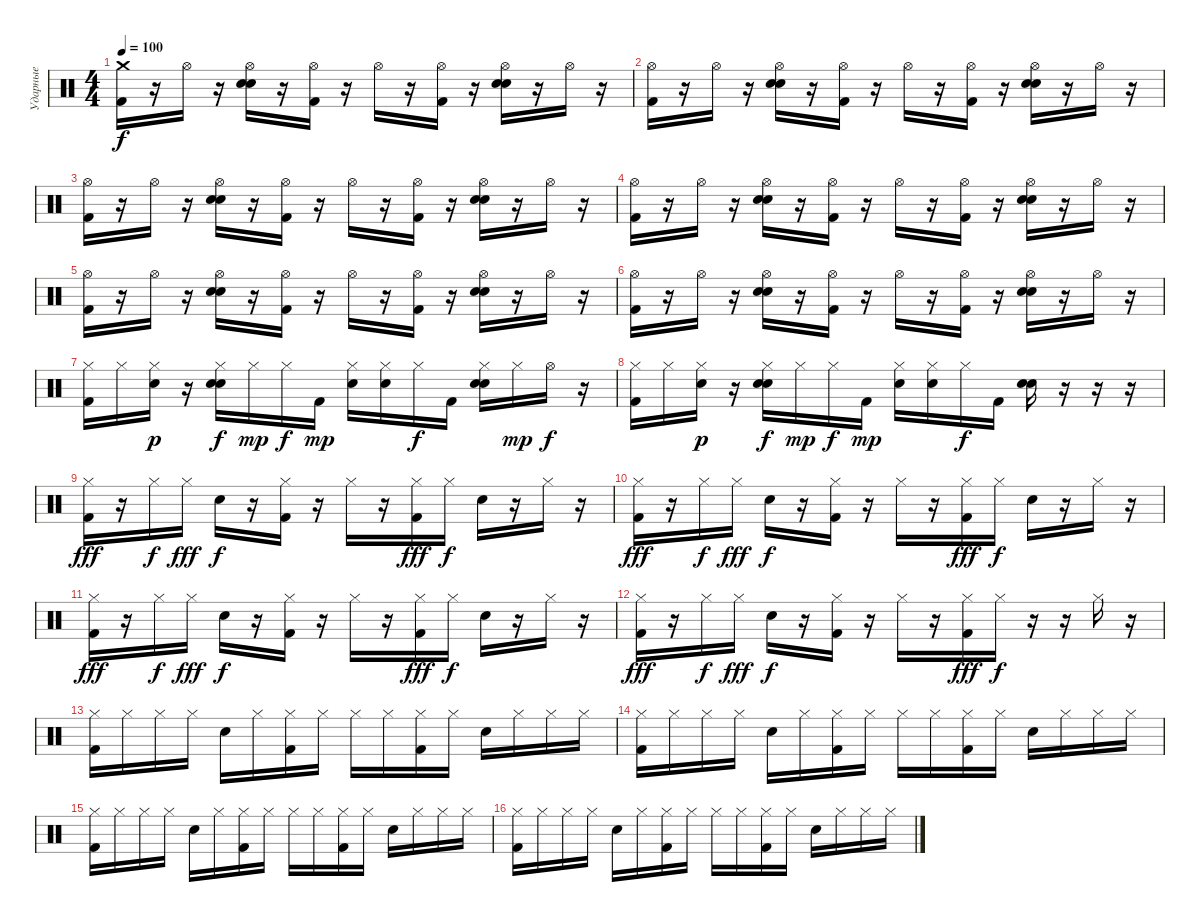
\track ("Ударные" "Ударные") {instrument percussion}
\staff {score}
\articulation defaults
\ts (4 4)
\tempo 100
\clef neutral
\ks c
("Crash medium (hit)" "Kick (hit) 2").16{dy f} r.16 "Hi-Hat (open)".16 r.16 ("Hi-Hat (open)" "Electric Snare (hit)" "Electric Snare (hit)").16 r.16 ("Hi-Hat (open)" "Kick (hit) 2").16 r.16 "Hi-Hat (open)".16 r.16 ("Hi-Hat (open)" "Kick (hit) 2").16 r.16 ("Hi-Hat (open)" "Electric Snare (hit)" "Electric Snare (hit)").16 r.16 "Hi-Hat (open)".16 r.16 |
("Hi-Hat (open)" "Kick (hit) 2").16 r.16 "Hi-Hat (open)".16 r.16 ("Hi-Hat (open)" "Electric Snare (hit)" "Electric Snare (hit)").16 r.16 ("Hi-Hat (open)" "Kick (hit) 2").16 r.16 "Hi-Hat (open)".16 r.16 ("Hi-Hat (open)" "Kick (hit) 2").16 r.16 ("Hi-Hat (open)" "Electric Snare (hit)" "Electric Snare (hit)").16 r.16 "Hi-Hat (open)".16 r.16 |
("Hi-Hat (open)" "Kick (hit) 2").16 r.16 "Hi-Hat (open)".16 r.16 ("Hi-Hat (open)" "Electric Snare (hit)" "Electric Snare (hit)").16 r.16 ("Hi-Hat (open)" "Kick (hit) 2").16 r.16 "Hi-Hat (open)".16 r.16 ("Hi-Hat (open)" "Kick (hit) 2").16 r.16 ("Hi-Hat (open)" "Electric Snare (hit)" "Electric Snare (hit)").16 r.16 "Hi-Hat (open)".16 r.16 |
("Hi-Hat (open)" "Kick (hit) 2").16 r.16 "Hi-Hat (open)".16 r.16 ("Hi-Hat (open)" "Electric Snare (hit)" "Electric Snare (hit)").16 r.16 ("Hi-Hat (open)" "Kick (hit) 2").16 r.16 "Hi-Hat (open)".16 r.16 ("Hi-Hat (open)" "Kick (hit) 2").16 r.16 ("Hi-Hat (open)" "Electric Snare (hit)" "Electric Snare (hit)").16 r.16 "Hi-Hat (open)".16 r.16 |
("Hi-Hat (open)" "Kick (hit) 2").16 r.16 "Hi-Hat (open)".16 r.16 ("Hi-Hat (open)" "Electric Snare (hit)" "Electric Snare (hit)").16 r.16 ("Hi-Hat (open)" "Kick (hit) 2").16 r.16 "Hi-Hat (open)".16 r.16 ("Hi-Hat (open)" "Kick (hit) 2").16 r.16 ("Hi-Hat (open)" "Electric Snare (hit)" "Electric Snare (hit)").16 r.16 "Hi-Hat (open)".16 r.16 |
("Hi-Hat (open)" "Kick (hit) 2").16 r.16 "Hi-Hat (open)".16 r.16 ("Hi-Hat (open)" "Electric Snare (hit)" "Electric Snare (hit)").16 r.16 ("Hi-Hat (open)" "Kick (hit) 2").16 r.16 "Hi-Hat (open)".16 r.16 ("Hi-Hat (open)" "Kick (hit) 2").16 r.16 ("Hi-Hat (open)" "Electric Snare (hit)" "Electric Snare (hit)").16 r.16 "Hi-Hat (open)".16 r.16 |
("Hi-Hat (closed)" "Kick (hit) 2").16 "Hi-Hat (closed)".16 ("Hi-Hat (closed)" "Electric Snare (hit)").16{dy p} r.16 ("Hi-Hat (closed)" "Electric Snare (hit)" "Electric Snare (hit)").16{dy f} "Hi-Hat (closed)".16{dy mp} "Hi-Hat (closed)".16{dy f} "Kick (hit) 2".16{dy mp} ("Hi-Hat (closed)" "Electric Snare (hit)").16 ("Hi-Hat (closed)" "Electric Snare (hit)").16 "Hi-Hat (closed)".16{dy f} "Kick (hit) 2".16 ("Hi-Hat (closed)" "Electric Snare (hit)" "Electric Snare (hit)").16 "Hi-Hat (closed)".16{dy mp} "Hi-Hat (open)".16{dy f} r.16 |
("Hi-Hat (closed)" "Kick (hit) 2").16 "Hi-Hat (closed)".16 ("Hi-Hat (closed)" "Electric Snare (hit)").16{dy p} r.16 ("Hi-Hat (closed)" "Electric Snare (hit)" "Electric Snare (hit)").16{dy f} "Hi-Hat (closed)".16{dy mp} "Hi-Hat (closed)".16{dy f} "Kick (hit) 2".16{dy mp} ("Hi-Hat (closed)" "Electric Snare (hit)").16 ("Hi-Hat (closed)" "Electric Snare (hit)").16 "Hi-Hat (closed)".16{dy f} "Kick (hit) 2".16 ("Electric Snare (hit)" "Electric Snare (hit)").16 r.16 r.16 r.16 |
("Hi-Hat (closed)" "Kick (hit) 2").16{dy fff} r.16 "Hi-Hat (closed)".16{dy f} "Hi-Hat (closed)".16{dy fff} "Electric Snare (hit)".16{dy f} r.16 ("Hi-Hat (closed)" "Kick (hit) 2").16 r.16 "Hi-Hat (closed)".16 r.16 ("Hi-Hat (closed)" "Kick (hit) 2").16{dy fff} "Hi-Hat (closed)".16{dy f} "Electric Snare (hit)".16 r.16 "Hi-Hat (closed)".16 r.16 |
("Hi-Hat (closed)" "Kick (hit) 2").16{dy fff} r.16 "Hi-Hat (closed)".16{dy f} "Hi-Hat (closed)".16{dy fff} "Electric Snare (hit)".16{dy f} r.16 ("Hi-Hat (closed)" "Kick (hit) 2").16 r.16 "Hi-Hat (closed)".16 r.16 ("Hi-Hat (closed)" "Kick (hit) 2").16{dy fff} "Hi-Hat (closed)".16{dy f} "Electric Snare (hit)".16 r.16 "Hi-Hat (closed)".16 r.16 |
("Hi-Hat (closed)" "Kick (hit) 2").16{dy fff} r.16 "Hi-Hat (closed)".16{dy f} "Hi-Hat (closed)".16{dy fff} "Electric Snare (hit)".16{dy f} r.16 ("Hi-Hat (closed)" "Kick (hit) 2").16 r.16 "Hi-Hat (closed)".16 r.16 ("Hi-Hat (closed)" "Kick (hit) 2").16{dy fff} "Hi-Hat (closed)".16{dy f} "Electric Snare (hit)".16 r.16 "Hi-Hat (closed)".16 r.16 |
("Hi-Hat (closed)" "Kick (hit) 2").16{dy fff} r.16 "Hi-Hat (closed)".16{dy f} "Hi-Hat (closed)".16{dy fff} "Electric Snare (hit)".16{dy f} r.16 ("Hi-Hat (closed)" "Kick (hit) 2").16 r.16 "Hi-Hat (closed)".16 r.16 ("Hi-Hat (closed)" "Kick (hit) 2").16{dy fff} "Hi-Hat (closed)".16{dy f} r.16 r.16 "Hi-Hat (closed)".16 r.16 |
("Hi-Hat (closed)" "Kick (hit) 2").16 "Hi-Hat (closed)".16 "Hi-Hat (closed)".16 "Hi-Hat (closed)".16 "Electric Snare (hit)".16 "Hi-Hat (closed)".16 ("Hi-Hat (closed)" "Kick (hit) 2").16 "Hi-Hat (closed)".16 "Hi-Hat (closed)".16 "Hi-Hat (closed)".16 ("Hi-Hat (closed)" "Kick (hit) 2").16 "Hi-Hat (closed)".16 "Electric Snare (hit)".16 "Hi-Hat (closed)".16 "Hi-Hat (closed)".16 "Hi-Hat (closed)".16 |
("Hi-Hat (closed)" "Kick (hit) 2").16 "Hi-Hat (closed)".16 "Hi-Hat (closed)".16 "Hi-Hat (closed)".16 "Electric Snare (hit)".16 "Hi-Hat (closed)".16 ("Hi-Hat (closed)" "Kick (hit) 2").16 "Hi-Hat (closed)".16 "Hi-Hat (closed)".16 "Hi-Hat (closed)".16 ("Hi-Hat (closed)" "Kick (hit) 2").16 "Hi-Hat (closed)".16 "Electric Snare (hit)".16 "Hi-Hat (closed)".16 "Hi-Hat (closed)".16 "Hi-Hat (closed)".16 |
("Hi-Hat (closed)" "Kick (hit) 2").16 "Hi-Hat (closed)".16 "Hi-Hat (closed)".16 "Hi-Hat (closed)".16 "Electric Snare (hit)".16 "Hi-Hat (closed)".16 ("Hi-Hat (closed)" "Kick (hit) 2").16 "Hi-Hat (closed)".16 "Hi-Hat (closed)".16 "Hi-Hat (closed)".16 ("Hi-Hat (closed)" "Kick (hit) 2").16 "Hi-Hat (closed)".16 "Electric Snare (hit)".16 "Hi-Hat (closed)".16 "Hi-Hat (closed)".16 "Hi-Hat (closed)".16 |
("Hi-Hat (closed)" "Kick (hit) 2").16 "Hi-Hat (closed)".16 "Hi-Hat (closed)".16 "Hi-Hat (closed)".16 "Electric Snare (hit)".16 "Hi-Hat (closed)".16 ("Hi-Hat (closed)" "Kick (hit) 2").16 "Hi-Hat (closed)".16 "Hi-Hat (closed)".16 "Hi-Hat (closed)".16 ("Hi-Hat (closed)" "Kick (hit) 2").16 "Hi-Hat (closed)".16 "Electric Snare (hit)".16 "Hi-Hat (closed)".16 "Hi-Hat (closed)".16 "Hi-Hat (closed)".16
